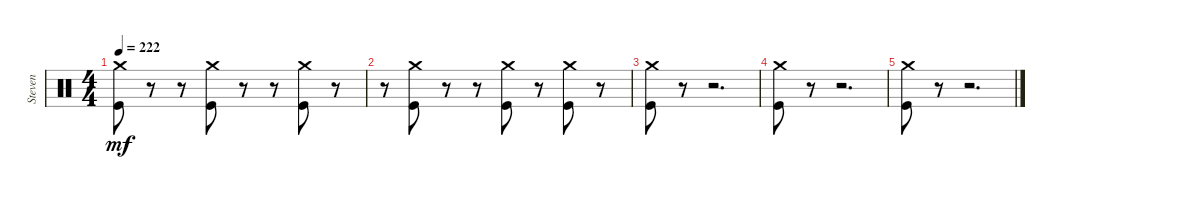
\track ("Steven" "Steven") {instrument percussion}
\staff {score}
\articulation defaults
\ts (4 4)
\tempo 222
\clef neutral
\ks c
("Kick (hit)" "Crash medium (hit)").8{dy mf} r.8 r.8 ("Kick (hit)" "Crash medium (hit)").8 r.8 r.8 ("Kick (hit)" "Crash medium (hit)").8 r.8 |
r.8 ("Kick (hit)" "Crash medium (hit)").8 r.8 r.8 ("Kick (hit)" "Crash medium (hit)").8 r.8 ("Kick (hit)" "Crash medium (hit)").8 r.8 |
("Kick (hit)" "Crash medium (hit)").8 r.8 r.2{d} |
("Kick (hit)" "Crash medium (hit)").8 r.8 r.2{d} |
("Kick (hit)" "Crash medium (hit)").8 r.8 r.2{d}
